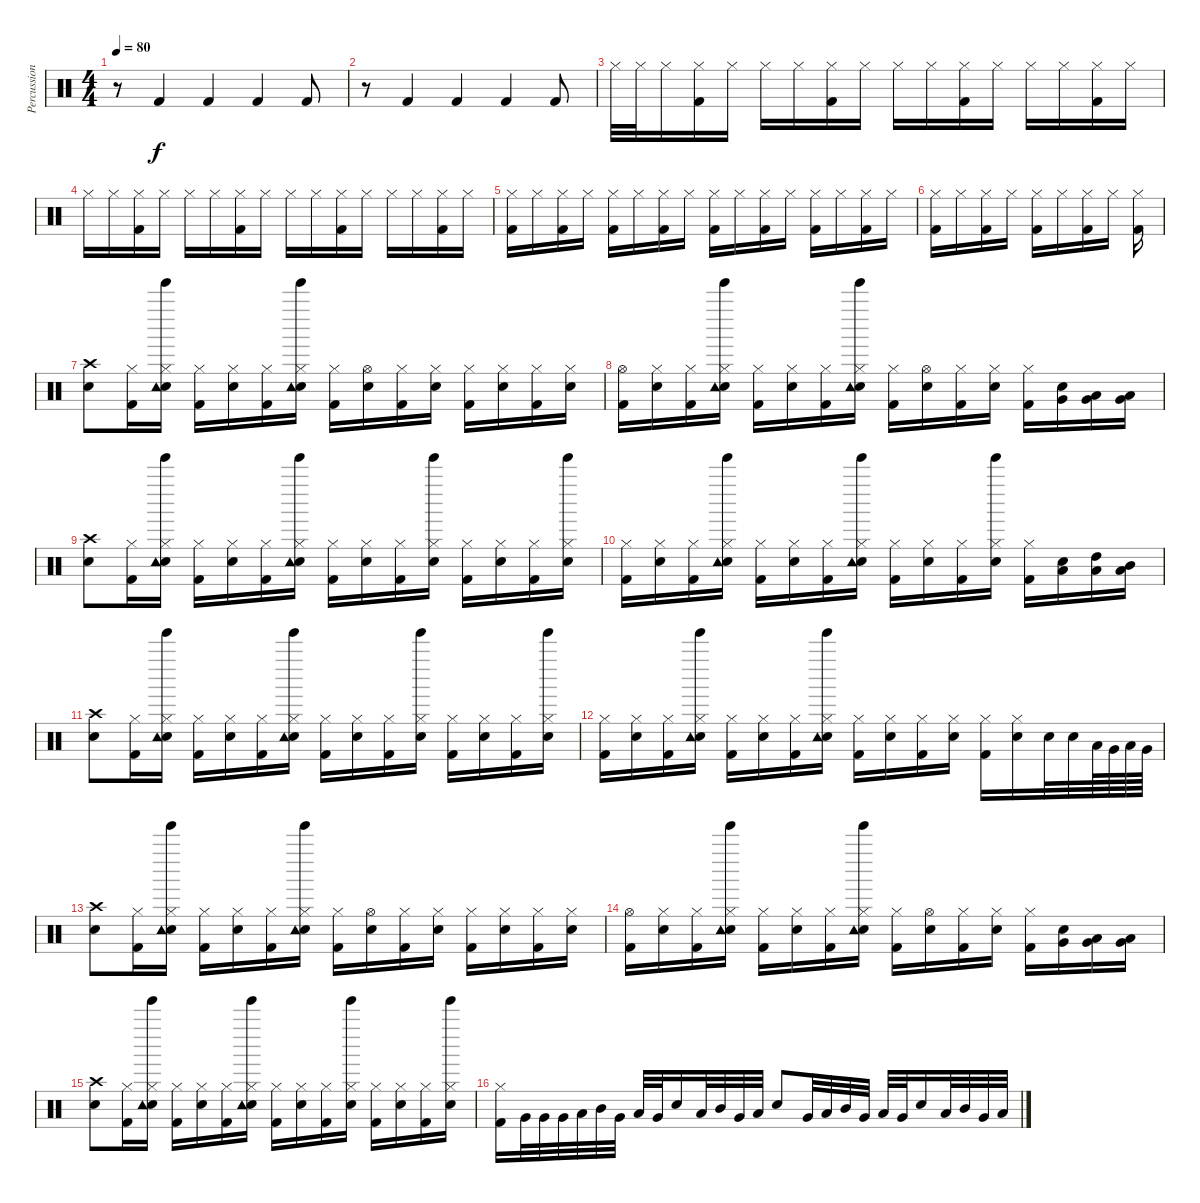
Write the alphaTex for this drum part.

\track ("Percussion" "Percussion") {instrument percussion}
\staff {score}
\articulation defaults
\ts (4 4)
\tempo 80
\clef neutral
\ks c
r.8{dy f} "Kick (hit) 2".4 "Kick (hit) 2".4 "Kick (hit) 2".4 "Kick (hit) 2".8 |
r.8 "Kick (hit) 2".4 "Kick (hit) 2".4 "Kick (hit) 2".4 "Kick (hit) 2".8 |
"Hi-Hat (closed)".32 "Hi-Hat (closed)".32 "Hi-Hat (closed)".16 ("Hi-Hat (closed)" "Kick (hit) 2").16 "Hi-Hat (closed)".16 "Hi-Hat (closed)".16 "Hi-Hat (closed)".16 ("Hi-Hat (closed)" "Kick (hit) 2").16 "Hi-Hat (closed)".16 "Hi-Hat (closed)".16 "Hi-Hat (closed)".16 ("Hi-Hat (closed)" "Kick (hit) 2").16 "Hi-Hat (closed)".16 "Hi-Hat (closed)".16 "Hi-Hat (closed)".16 ("Hi-Hat (closed)" "Kick (hit) 2").16 "Hi-Hat (closed)".16 |
"Hi-Hat (closed)".16 "Hi-Hat (closed)".16 ("Hi-Hat (closed)" "Kick (hit) 2").16 "Hi-Hat (closed)".16 "Hi-Hat (closed)".16 "Hi-Hat (closed)".16 ("Hi-Hat (closed)" "Kick (hit) 2").16 "Hi-Hat (closed)".16 "Hi-Hat (closed)".16 "Hi-Hat (closed)".16 ("Hi-Hat (closed)" "Kick (hit) 2").16 "Hi-Hat (closed)".16 "Hi-Hat (closed)".16 "Hi-Hat (closed)".16 ("Hi-Hat (closed)" "Kick (hit) 2").16 "Hi-Hat (closed)".16 |
("Hi-Hat (closed)" "Kick (hit) 2").16 "Hi-Hat (closed)".16 ("Hi-Hat (closed)" "Kick (hit) 2").16 "Hi-Hat (closed)".16 ("Hi-Hat (closed)" "Kick (hit) 2").16 "Hi-Hat (closed)".16 ("Hi-Hat (closed)" "Kick (hit) 2").16 "Hi-Hat (closed)".16 ("Hi-Hat (closed)" "Kick (hit) 2").16 "Hi-Hat (closed)".16 ("Hi-Hat (closed)" "Kick (hit) 2").16 "Hi-Hat (closed)".16 ("Hi-Hat (closed)" "Kick (hit) 2").16 "Hi-Hat (closed)".16 ("Hi-Hat (closed)" "Kick (hit) 2").16 "Hi-Hat (closed)".16 |
("Hi-Hat (closed)" "Kick (hit) 2").16 "Hi-Hat (closed)".16 ("Hi-Hat (closed)" "Kick (hit) 2").16 "Hi-Hat (closed)".16 ("Hi-Hat (closed)" "Kick (hit) 2").16 "Hi-Hat (closed)".16 ("Hi-Hat (closed)" "Kick (hit) 2").16 "Hi-Hat (closed)".16 ("Hi-Hat (closed)" "Kick (hit) 2").16 |
("Crash high (hit)" "Snare (hit) 2").8 ("Kick (hit) 2" "Hi-Hat (closed)").16 ("Snare (hit) 2" "Hi-Hat (closed)" "Tambourine (hit)" "Tinkle Bell (hit)").16 ("Kick (hit) 2" "Hi-Hat (closed)").16 ("Snare (hit) 2" "Hi-Hat (closed)").16 ("Kick (hit) 2" "Hi-Hat (closed)").16 ("Snare (hit) 2" "Hi-Hat (closed)" "Tambourine (hit)" "Tinkle Bell (hit)").16 ("Kick (hit) 2" "Hi-Hat (closed)").16 ("Snare (hit) 2" "Hi-Hat (open)").16 ("Kick (hit) 2" "Hi-Hat (closed)").16 ("Snare (hit) 2" "Hi-Hat (closed)").16 ("Kick (hit) 2" "Hi-Hat (closed)").16 ("Snare (hit) 2" "Hi-Hat (closed)").16 ("Kick (hit) 2" "Hi-Hat (closed)").16 ("Snare (hit) 2" "Hi-Hat (closed)").16 |
("Kick (hit) 2" "Hi-Hat (open)").16 ("Hi-Hat (closed)" "Snare (hit) 2").16 ("Kick (hit) 2" "Hi-Hat (closed)").16 ("Snare (hit) 2" "Hi-Hat (closed)" "Tambourine (hit)" "Tinkle Bell (hit)").16 ("Kick (hit) 2" "Hi-Hat (closed)").16 ("Snare (hit) 2" "Hi-Hat (closed)").16 ("Kick (hit) 2" "Hi-Hat (closed)").16 ("Snare (hit) 2" "Hi-Hat (closed)" "Tambourine (hit)" "Tinkle Bell (hit)").16 ("Kick (hit) 2" "Hi-Hat (closed)").16 ("Snare (hit) 2" "Hi-Hat (open)").16 ("Kick (hit) 2" "Hi-Hat (closed)").16 ("Snare (hit) 2" "Hi-Hat (closed)").16 ("Kick (hit) 2" "Hi-Hat (closed)").16 ("Snare (hit) 2" "Very Low Tom (hit)").16 ("Low Floor Tom (hit)" "Very Low Tom (hit)").16 ("Low Floor Tom (hit)" "Very Low Tom (hit)").16 |
("Crash high (hit)" "Snare (hit) 2").8 ("Kick (hit) 2" "Hi-Hat (closed)").16 ("Snare (hit) 2" "Hi-Hat (closed)" "Tambourine (hit)" "Tinkle Bell (hit)").16 ("Kick (hit) 2" "Hi-Hat (closed)").16 ("Snare (hit) 2" "Hi-Hat (closed)").16 ("Kick (hit) 2" "Hi-Hat (closed)").16 ("Snare (hit) 2" "Hi-Hat (closed)" "Tambourine (hit)" "Tinkle Bell (hit)").16 ("Kick (hit) 2" "Hi-Hat (closed)").16 ("Snare (hit) 2" "Hi-Hat (closed)").16 ("Kick (hit) 2" "Hi-Hat (closed)").16 ("Snare (hit) 2" "Hi-Hat (closed)" "Tinkle Bell (hit)").16 ("Kick (hit) 2" "Hi-Hat (closed)").16 ("Snare (hit) 2" "Hi-Hat (closed)").16 ("Kick (hit) 2" "Hi-Hat (closed)").16 ("Snare (hit) 2" "Hi-Hat (closed)" "Tinkle Bell (hit)").16 |
("Kick (hit) 2" "Hi-Hat (closed)").16 ("Hi-Hat (closed)" "Snare (hit) 2").16 ("Kick (hit) 2" "Hi-Hat (closed)").16 ("Snare (hit) 2" "Hi-Hat (closed)" "Tambourine (hit)" "Tinkle Bell (hit)").16 ("Kick (hit) 2" "Hi-Hat (closed)").16 ("Snare (hit) 2" "Hi-Hat (closed)").16 ("Kick (hit) 2" "Hi-Hat (closed)").16 ("Snare (hit) 2" "Hi-Hat (closed)" "Tambourine (hit)" "Tinkle Bell (hit)").16 ("Kick (hit) 2" "Hi-Hat (closed)").16 ("Snare (hit) 2" "Hi-Hat (closed)").16 ("Kick (hit) 2" "Hi-Hat (closed)").16 ("Snare (hit) 2" "Hi-Hat (closed)" "Tinkle Bell (hit)").16 ("Kick (hit) 2" "Hi-Hat (closed)").16 ("Snare (hit) 2" "Low Floor Tom (hit)").16 ("Low Floor Tom (hit)" "High Tom (hit)").16 ("Low Floor Tom (hit)" "Mid Tom (hit)").16 |
("Crash high (hit)" "Snare (hit) 2").8 ("Kick (hit) 2" "Hi-Hat (closed)").16 ("Snare (hit) 2" "Hi-Hat (closed)" "Tambourine (hit)" "Tinkle Bell (hit)").16 ("Kick (hit) 2" "Hi-Hat (closed)").16 ("Snare (hit) 2" "Hi-Hat (closed)").16 ("Kick (hit) 2" "Hi-Hat (closed)").16 ("Snare (hit) 2" "Hi-Hat (closed)" "Tambourine (hit)" "Tinkle Bell (hit)").16 ("Kick (hit) 2" "Hi-Hat (closed)").16 ("Snare (hit) 2" "Hi-Hat (closed)").16 ("Kick (hit) 2" "Hi-Hat (closed)").16 ("Snare (hit) 2" "Hi-Hat (closed)" "Tinkle Bell (hit)").16 ("Kick (hit) 2" "Hi-Hat (closed)").16 ("Snare (hit) 2" "Hi-Hat (closed)").16 ("Kick (hit) 2" "Hi-Hat (closed)").16 ("Snare (hit) 2" "Hi-Hat (closed)" "Tinkle Bell (hit)").16 |
("Kick (hit) 2" "Hi-Hat (closed)").16 ("Hi-Hat (closed)" "Snare (hit) 2").16 ("Kick (hit) 2" "Hi-Hat (closed)").16 ("Snare (hit) 2" "Hi-Hat (closed)" "Tambourine (hit)" "Tinkle Bell (hit)").16 ("Kick (hit) 2" "Hi-Hat (closed)").16 ("Snare (hit) 2" "Hi-Hat (closed)").16 ("Kick (hit) 2" "Hi-Hat (closed)").16 ("Snare (hit) 2" "Hi-Hat (closed)" "Tambourine (hit)" "Tinkle Bell (hit)").16 ("Kick (hit) 2" "Hi-Hat (closed)").16 ("Snare (hit) 2" "Hi-Hat (closed)").16 ("Kick (hit) 2" "Hi-Hat (closed)").16 ("Snare (hit) 2" "Hi-Hat (closed)").16 ("Kick (hit) 2" "Hi-Hat (closed)").16 ("Snare (hit) 2" "Hi-Hat (closed)").16 "Snare (hit) 2".32 "Snare (hit) 2".32 "Low Floor Tom (hit)".64 "Very Low Tom (hit)".64 "Low Floor Tom (hit)".64 "Very Low Tom (hit)".64 |
("Crash high (hit)" "Snare (hit) 2").8 ("Kick (hit) 2" "Hi-Hat (closed)").16 ("Snare (hit) 2" "Hi-Hat (closed)" "Tambourine (hit)" "Tinkle Bell (hit)").16 ("Kick (hit) 2" "Hi-Hat (closed)").16 ("Snare (hit) 2" "Hi-Hat (closed)").16 ("Kick (hit) 2" "Hi-Hat (closed)").16 ("Snare (hit) 2" "Hi-Hat (closed)" "Tambourine (hit)" "Tinkle Bell (hit)").16 ("Kick (hit) 2" "Hi-Hat (closed)").16 ("Snare (hit) 2" "Hi-Hat (open)").16 ("Kick (hit) 2" "Hi-Hat (closed)").16 ("Snare (hit) 2" "Hi-Hat (closed)").16 ("Kick (hit) 2" "Hi-Hat (closed)").16 ("Snare (hit) 2" "Hi-Hat (closed)").16 ("Kick (hit) 2" "Hi-Hat (closed)").16 ("Snare (hit) 2" "Hi-Hat (closed)").16 |
("Kick (hit) 2" "Hi-Hat (open)").16 ("Hi-Hat (closed)" "Snare (hit) 2").16 ("Kick (hit) 2" "Hi-Hat (closed)").16 ("Snare (hit) 2" "Hi-Hat (closed)" "Tambourine (hit)" "Tinkle Bell (hit)").16 ("Kick (hit) 2" "Hi-Hat (closed)").16 ("Snare (hit) 2" "Hi-Hat (closed)").16 ("Kick (hit) 2" "Hi-Hat (closed)").16 ("Snare (hit) 2" "Hi-Hat (closed)" "Tambourine (hit)" "Tinkle Bell (hit)").16 ("Kick (hit) 2" "Hi-Hat (closed)").16 ("Snare (hit) 2" "Hi-Hat (open)").16 ("Kick (hit) 2" "Hi-Hat (closed)").16 ("Snare (hit) 2" "Hi-Hat (closed)").16 ("Kick (hit) 2" "Hi-Hat (closed)").16 ("Snare (hit) 2" "Very Low Tom (hit)").16 ("Low Floor Tom (hit)" "Very Low Tom (hit)").16 ("Low Floor Tom (hit)" "Very Low Tom (hit)").16 |
("Crash high (hit)" "Snare (hit) 2").8 ("Kick (hit) 2" "Hi-Hat (closed)").16 ("Snare (hit) 2" "Hi-Hat (closed)" "Tambourine (hit)" "Tinkle Bell (hit)").16 ("Kick (hit) 2" "Hi-Hat (closed)").16 ("Snare (hit) 2" "Hi-Hat (closed)").16 ("Kick (hit) 2" "Hi-Hat (closed)").16 ("Snare (hit) 2" "Hi-Hat (closed)" "Tambourine (hit)" "Tinkle Bell (hit)").16 ("Kick (hit) 2" "Hi-Hat (closed)").16 ("Snare (hit) 2" "Hi-Hat (closed)").16 ("Kick (hit) 2" "Hi-Hat (closed)").16 ("Snare (hit) 2" "Hi-Hat (closed)" "Tinkle Bell (hit)").16 ("Kick (hit) 2" "Hi-Hat (closed)").16 ("Snare (hit) 2" "Hi-Hat (closed)").16 ("Kick (hit) 2" "Hi-Hat (closed)").16 ("Snare (hit) 2" "Hi-Hat (closed)" "Tinkle Bell (hit)").16 |
("Hi-Hat (closed)" "Kick (hit) 2").16 "Very Low Tom (hit)".32 "Very Low Tom (hit)".32 "Very Low Tom (hit)".32 "Low Tom (hit)".32 "Mid Tom (hit)".32 "Very Low Tom (hit)".32 "Low Floor Tom (hit)".32 "Very Low Tom (hit)".32 "Snare (hit) 2".16 "Low Floor Tom (hit)".32 "Mid Tom (hit)".32 "Very Low Tom (hit)".32 "Low Floor Tom (hit)".32 "Snare (hit) 2".8 "Very Low Tom (hit)".32 "Low Tom (hit)".32 "Mid Tom (hit)".32 "Very Low Tom (hit)".32 "Low Floor Tom (hit)".32 "Very Low Tom (hit)".32 "Snare (hit) 2".16 "Low Floor Tom (hit)".32 "Mid Tom (hit)".32 "Very Low Tom (hit)".32 "Low Floor Tom (hit)".32
